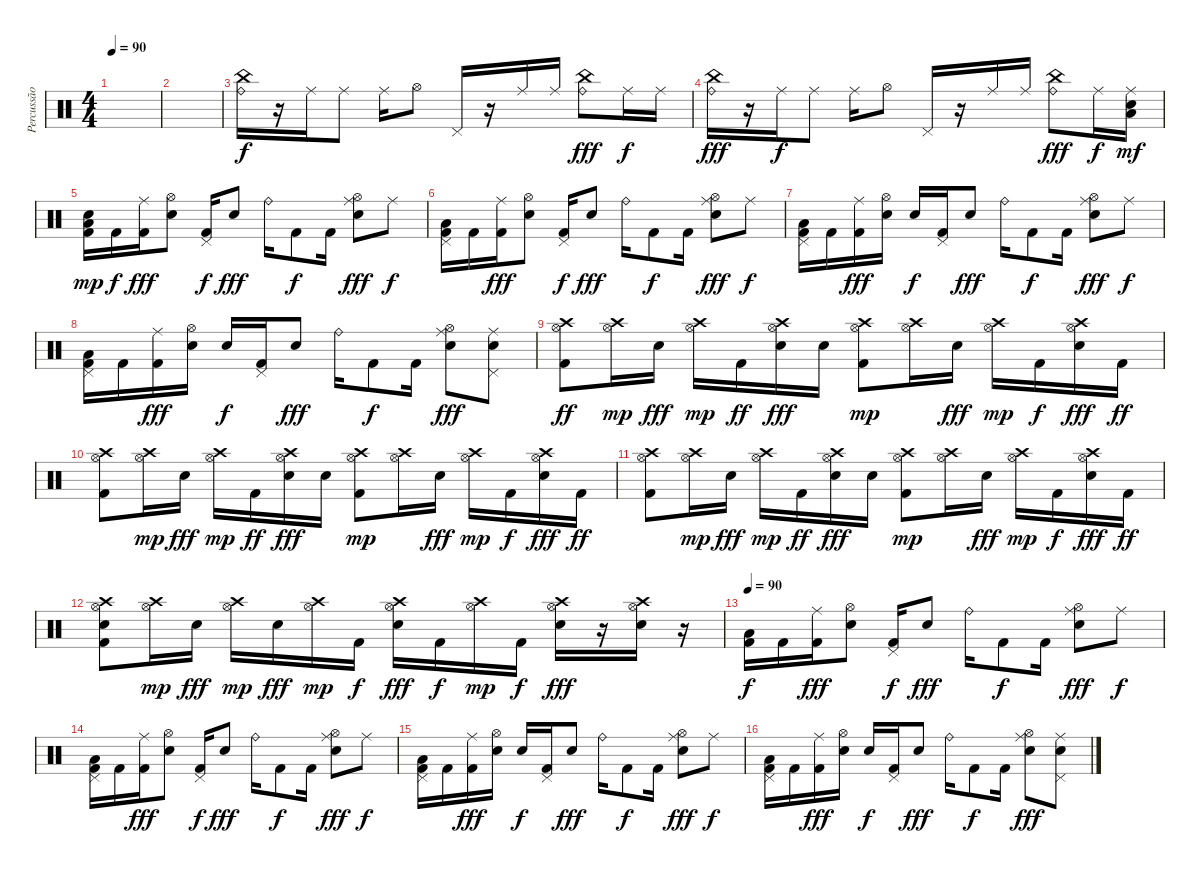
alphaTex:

\track ("Percussão" "Percussão") {instrument percussion}
\staff {score}
\articulation defaults
\ts (4 4)
\tempo 90
\clef neutral
\ks c
|
|
("China (hit)" "Ride (bell)").16 r.16 "Ride (middle)".16{dy f} "Ride (middle)".8 "Ride (middle)".16 "Hi-Hat (open)".8 "Pedal Hi-Hat (hit)".16 r.16 "Ride (middle)".16 "Ride (middle)".16 ("China (hit)" "Ride (bell)").8{dy fff} "Ride (middle)".16{dy f} "Ride (middle)".16 |
("China (hit)" "Ride (bell)").16{dy fff} r.16 "Ride (middle)".16{dy f} "Ride (middle)".8 "Ride (middle)".16 "Hi-Hat (open)".8 "Pedal Hi-Hat (hit)".16 r.16 "Ride (middle)".16 "Ride (middle)".16 ("China (hit)" "Ride (bell)").8{dy fff} "Ride (middle)".16{dy f} ("Electric Snare (hit)" "Low Tom (hit)" "Ride (middle)").16{dy mf} |
("Electric Snare (hit)" "Low Tom (hit)" "Kick (hit) 2").16{dy mp} "Kick (hit) 2".16{dy f} ("Ride (middle)" "Kick (hit) 2").16{dy fff} ("Hi-Hat (open)" "Electric Snare (hit)").8 ("Pedal Hi-Hat (hit)" "Kick (hit) 2").16{dy f} "Electric Snare (hit)".8{dy fff} "Ride (bell)".16 "Kick (hit) 2".8{dy f} "Kick (hit) 2".16 ("Hi-Hat (open)" "Ride (middle)" "Electric Snare (hit)").8{dy fff} "Ride (middle)".8{dy f} |
("Pedal Hi-Hat (hit)" "Low Tom (hit)" "Kick (hit) 2").16 "Kick (hit) 2".16 ("Ride (middle)" "Kick (hit) 2").16{dy fff} ("Hi-Hat (open)" "Electric Snare (hit)").8 ("Pedal Hi-Hat (hit)" "Kick (hit) 2").16{dy f} "Electric Snare (hit)".8{dy fff} "Ride (bell)".16 "Kick (hit) 2".8{dy f} "Kick (hit) 2".16 ("Hi-Hat (open)" "Ride (middle)" "Electric Snare (hit)").8{dy fff} "Ride (middle)".8{dy f} |
("Pedal Hi-Hat (hit)" "Low Tom (hit)" "Kick (hit) 2").16 "Kick (hit) 2".16 ("Ride (middle)" "Kick (hit) 2").16{dy fff} ("Hi-Hat (open)" "Electric Snare (hit)").16 "Electric Snare (hit)".16{dy f} ("Pedal Hi-Hat (hit)" "Kick (hit) 2").16 "Electric Snare (hit)".8{dy fff} "Ride (bell)".16 "Kick (hit) 2".8{dy f} "Kick (hit) 2".16 ("Hi-Hat (open)" "Ride (middle)" "Electric Snare (hit)").8{dy fff} "Ride (middle)".8{dy f} |
("Pedal Hi-Hat (hit)" "Low Tom (hit)" "Kick (hit) 2").16 "Kick (hit) 2".16 ("Ride (middle)" "Kick (hit) 2").16{dy fff} ("Hi-Hat (open)" "Electric Snare (hit)").16 "Electric Snare (hit)".16{dy f} ("Pedal Hi-Hat (hit)" "Kick (hit) 2").16 "Electric Snare (hit)".8{dy fff} "Ride (bell)".16 "Kick (hit) 2".8{dy f} "Kick (hit) 2".16 ("Hi-Hat (open)" "Ride (middle)" "Electric Snare (hit)").8{dy fff} ("Pedal Hi-Hat (hit)" "Ride (middle)" "Electric Snare (hit)").8 |
("Hi-Hat (open)" "Crash high (hit)" "Kick (hit) 2").8{dy ff} ("Hi-Hat (open)" "Crash high (hit)").16{dy mp} "Electric Snare (hit)".16{dy fff} ("Hi-Hat (open)" "Crash high (hit)").16{dy mp} "Kick (hit) 2".16{dy ff} ("Hi-Hat (open)" "Crash high (hit)" "Electric Snare (hit)").16{dy fff} "Electric Snare (hit)".16 ("Hi-Hat (open)" "Crash high (hit)" "Kick (hit) 2").8{dy mp} ("Hi-Hat (open)" "Crash high (hit)").16 "Electric Snare (hit)".16{dy fff} ("Hi-Hat (open)" "Crash high (hit)").16{dy mp} "Kick (hit) 2".16{dy f} ("Hi-Hat (open)" "Crash high (hit)" "Electric Snare (hit)").16{dy fff} "Kick (hit) 2".16{dy ff} |
("Hi-Hat (open)" "Crash high (hit)" "Kick (hit) 2").8 ("Hi-Hat (open)" "Crash high (hit)").16{dy mp} "Electric Snare (hit)".16{dy fff} ("Hi-Hat (open)" "Crash high (hit)").16{dy mp} "Kick (hit) 2".16{dy ff} ("Hi-Hat (open)" "Crash high (hit)" "Electric Snare (hit)").16{dy fff} "Electric Snare (hit)".16 ("Hi-Hat (open)" "Crash high (hit)" "Kick (hit) 2").8{dy mp} ("Hi-Hat (open)" "Crash high (hit)").16 "Electric Snare (hit)".16{dy fff} ("Hi-Hat (open)" "Crash high (hit)").16{dy mp} "Kick (hit) 2".16{dy f} ("Hi-Hat (open)" "Crash high (hit)" "Electric Snare (hit)").16{dy fff} "Kick (hit) 2".16{dy ff} |
("Hi-Hat (open)" "Crash high (hit)" "Kick (hit) 2").8 ("Hi-Hat (open)" "Crash high (hit)").16{dy mp} "Electric Snare (hit)".16{dy fff} ("Hi-Hat (open)" "Crash high (hit)").16{dy mp} "Kick (hit) 2".16{dy ff} ("Hi-Hat (open)" "Crash high (hit)" "Electric Snare (hit)").16{dy fff} "Electric Snare (hit)".16 ("Hi-Hat (open)" "Crash high (hit)" "Kick (hit) 2").8{dy mp} ("Hi-Hat (open)" "Crash high (hit)").16 "Electric Snare (hit)".16{dy fff} ("Hi-Hat (open)" "Crash high (hit)").16{dy mp} "Kick (hit) 2".16{dy f} ("Hi-Hat (open)" "Crash high (hit)" "Electric Snare (hit)").16{dy fff} "Kick (hit) 2".16{dy ff} |
("Hi-Hat (open)" "Crash high (hit)" "Electric Snare (hit)" "Kick (hit) 2").8 ("Hi-Hat (open)" "Crash high (hit)").16{dy mp} "Electric Snare (hit)".16{dy fff} ("Hi-Hat (open)" "Crash high (hit)").16{dy mp} "Electric Snare (hit)".16{dy fff} ("Hi-Hat (open)" "Crash high (hit)").16{dy mp} "Kick (hit) 2".16{dy f} ("Hi-Hat (open)" "Crash high (hit)" "Electric Snare (hit)").16{dy fff} "Kick (hit) 2".16{dy f} ("Hi-Hat (open)" "Crash high (hit)").16{dy mp} "Kick (hit) 2".16{dy f} ("Hi-Hat (open)" "Crash high (hit)" "Electric Snare (hit)").16{dy fff} r.16 ("Hi-Hat (open)" "Crash high (hit)" "Electric Snare (hit)").16 r.16 |
\tempo 90
("Low Tom (hit)" "Kick (hit) 2").16{dy f} "Kick (hit) 2".16 ("Ride (middle)" "Kick (hit) 2").16{dy fff} ("Hi-Hat (open)" "Electric Snare (hit)").8 ("Pedal Hi-Hat (hit)" "Kick (hit) 2").16{dy f} "Electric Snare (hit)".8{dy fff} "Ride (bell)".16 "Kick (hit) 2".8{dy f} "Kick (hit) 2".16 ("Hi-Hat (open)" "Ride (middle)" "Electric Snare (hit)").8{dy fff} "Ride (middle)".8{dy f} |
("Pedal Hi-Hat (hit)" "Low Tom (hit)" "Kick (hit) 2").16 "Kick (hit) 2".16 ("Ride (middle)" "Kick (hit) 2").16{dy fff} ("Hi-Hat (open)" "Electric Snare (hit)").8 ("Pedal Hi-Hat (hit)" "Kick (hit) 2").16{dy f} "Electric Snare (hit)".8{dy fff} "Ride (bell)".16 "Kick (hit) 2".8{dy f} "Kick (hit) 2".16 ("Hi-Hat (open)" "Ride (middle)" "Electric Snare (hit)").8{dy fff} "Ride (middle)".8{dy f} |
("Pedal Hi-Hat (hit)" "Low Tom (hit)" "Kick (hit) 2").16 "Kick (hit) 2".16 ("Ride (middle)" "Kick (hit) 2").16{dy fff} ("Hi-Hat (open)" "Electric Snare (hit)").16 "Electric Snare (hit)".16{dy f} ("Pedal Hi-Hat (hit)" "Kick (hit) 2").16 "Electric Snare (hit)".8{dy fff} "Ride (bell)".16 "Kick (hit) 2".8{dy f} "Kick (hit) 2".16 ("Hi-Hat (open)" "Ride (middle)" "Electric Snare (hit)").8{dy fff} "Ride (middle)".8{dy f} |
("Pedal Hi-Hat (hit)" "Low Tom (hit)" "Kick (hit) 2").16 "Kick (hit) 2".16 ("Ride (middle)" "Kick (hit) 2").16{dy fff} ("Hi-Hat (open)" "Electric Snare (hit)").16 "Electric Snare (hit)".16{dy f} ("Pedal Hi-Hat (hit)" "Kick (hit) 2").16 "Electric Snare (hit)".8{dy fff} "Ride (bell)".16 "Kick (hit) 2".8{dy f} "Kick (hit) 2".16 ("Hi-Hat (open)" "Ride (middle)" "Electric Snare (hit)").8{dy fff} ("Pedal Hi-Hat (hit)" "Ride (middle)" "Electric Snare (hit)").8
